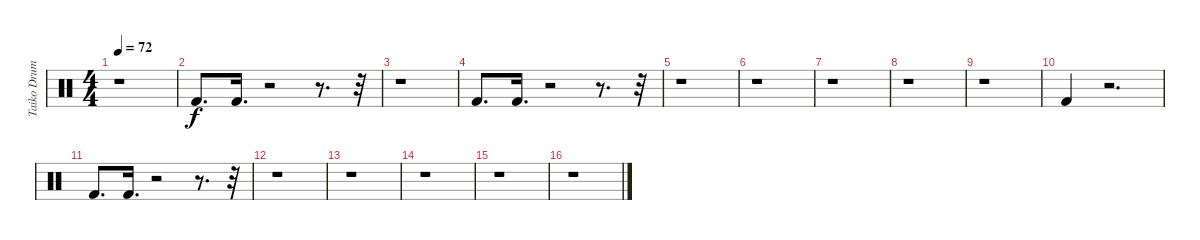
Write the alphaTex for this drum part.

\track ("Taiko Drum" "Taiko Drum") {instrument percussion}
\staff {score}
\articulation defaults
\ts (4 4)
\tempo 72
\clef neutral
\ks c
r.1{dy fff} |
"Kick (hit) 2".8{d dy f} "Kick (hit) 2".16{d} r.2 r.8{d} r.32 |
r.1 |
"Kick (hit) 2".8{d} "Kick (hit) 2".16{d} r.2 r.8{d} r.32 |
r.1 |
r.1 |
r.1 |
r.1 |
r.1 |
"Kick (hit) 2".4 r.2{d} |
"Kick (hit) 2".8{d} "Kick (hit) 2".16{d} r.2 r.8{d} r.32 |
r.1 |
r.1 |
r.1 |
r.1 |
r.1
